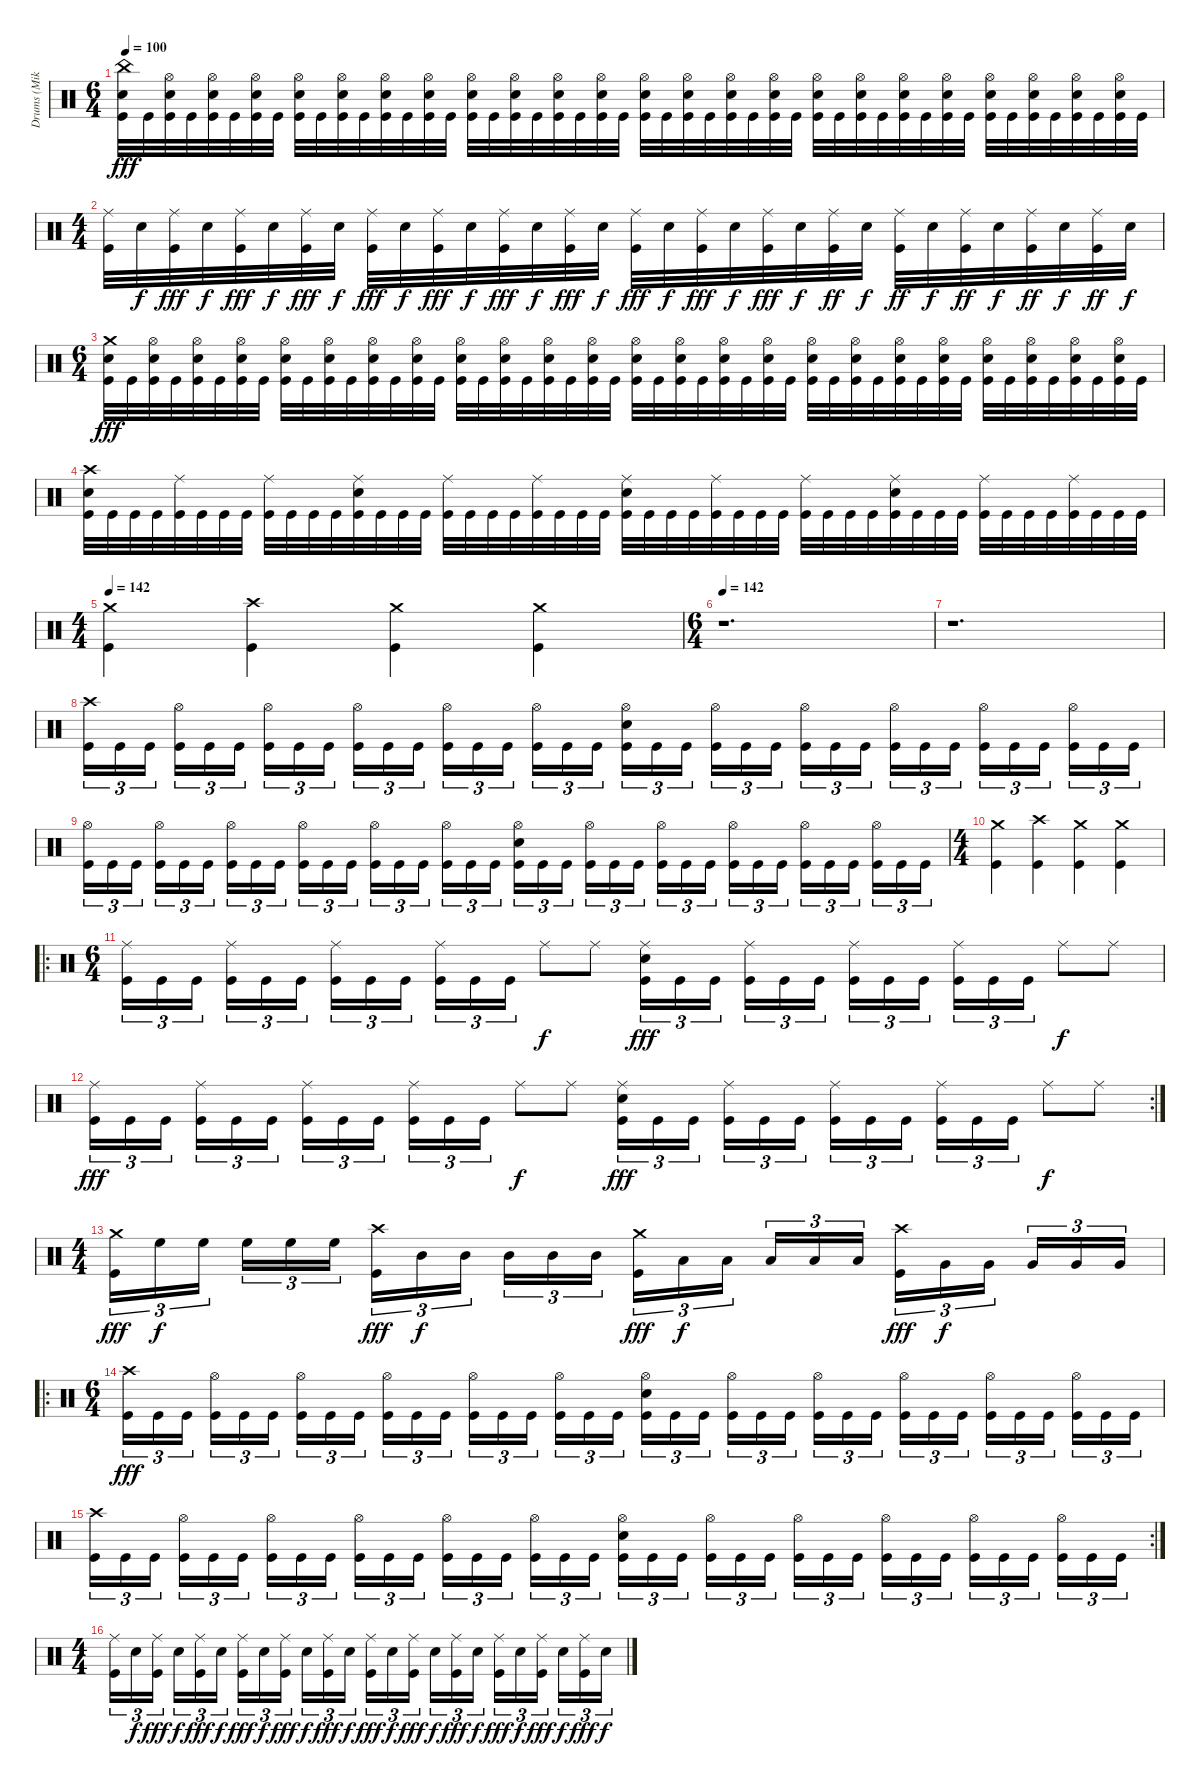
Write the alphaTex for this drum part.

\track ("Drums (Mike)" "Drums (Mik") {instrument percussion}
\staff {score}
\articulation defaults
\ts (6 4)
\tempo 100
\clef neutral
\ks c
("China (hit)" "Electric Snare (hit)" "Kick (hit)").32{dy fff} "Kick (hit)".32 ("Hi-Hat (open)" "Electric Snare (hit)" "Kick (hit)").32 "Kick (hit)".32 ("Hi-Hat (open)" "Electric Snare (hit)" "Kick (hit)").32 "Kick (hit)".32 ("Hi-Hat (open)" "Electric Snare (hit)" "Kick (hit)").32 "Kick (hit)".32 ("Hi-Hat (open)" "Electric Snare (hit)" "Kick (hit)").32 "Kick (hit)".32 ("Hi-Hat (open)" "Electric Snare (hit)" "Kick (hit)").32 "Kick (hit)".32 ("Hi-Hat (open)" "Electric Snare (hit)" "Kick (hit)").32 "Kick (hit)".32 ("Hi-Hat (open)" "Electric Snare (hit)" "Kick (hit)").32 "Kick (hit)".32 ("Hi-Hat (open)" "Electric Snare (hit)" "Kick (hit)").32 "Kick (hit)".32 ("Hi-Hat (open)" "Electric Snare (hit)" "Kick (hit)").32 "Kick (hit)".32 ("Hi-Hat (open)" "Electric Snare (hit)" "Kick (hit)").32 "Kick (hit)".32 ("Hi-Hat (open)" "Electric Snare (hit)" "Kick (hit)").32 "Kick (hit)".32 ("Hi-Hat (open)" "Electric Snare (hit)" "Kick (hit)").32 "Kick (hit)".32 ("Hi-Hat (open)" "Electric Snare (hit)" "Kick (hit)").32 "Kick (hit)".32 ("Hi-Hat (open)" "Electric Snare (hit)" "Kick (hit)").32 "Kick (hit)".32 ("Hi-Hat (open)" "Electric Snare (hit)" "Kick (hit)").32 "Kick (hit)".32 ("Hi-Hat (open)" "Electric Snare (hit)" "Kick (hit)").32 "Kick (hit)".32 ("Hi-Hat (open)" "Electric Snare (hit)" "Kick (hit)").32 "Kick (hit)".32 ("Hi-Hat (open)" "Electric Snare (hit)" "Kick (hit)").32 "Kick (hit)".32 ("Hi-Hat (open)" "Electric Snare (hit)" "Kick (hit)").32 "Kick (hit)".32 ("Hi-Hat (open)" "Electric Snare (hit)" "Kick (hit)").32 "Kick (hit)".32 ("Hi-Hat (open)" "Electric Snare (hit)" "Kick (hit)").32 "Kick (hit)".32 ("Hi-Hat (open)" "Electric Snare (hit)" "Kick (hit)").32 "Kick (hit)".32 ("Hi-Hat (open)" "Electric Snare (hit)" "Kick (hit)").32 "Kick (hit)".32 |
\ts (4 4)
("Ride (middle)" "Kick (hit)").32 "Electric Snare (hit)".32{dy f} ("Ride (middle)" "Kick (hit)").32{dy fff} "Electric Snare (hit)".32{dy f} ("Ride (middle)" "Kick (hit)").32{dy fff} "Electric Snare (hit)".32{dy f} ("Ride (middle)" "Kick (hit)").32{dy fff} "Electric Snare (hit)".32{dy f} ("Ride (middle)" "Kick (hit)").32{dy fff} "Electric Snare (hit)".32{dy f} ("Ride (middle)" "Kick (hit)").32{dy fff} "Electric Snare (hit)".32{dy f} ("Ride (middle)" "Kick (hit)").32{dy fff} "Electric Snare (hit)".32{dy f} ("Ride (middle)" "Kick (hit)").32{dy fff} "Electric Snare (hit)".32{dy f} ("Ride (middle)" "Kick (hit)").32{dy fff} "Electric Snare (hit)".32{dy f} ("Ride (middle)" "Kick (hit)").32{dy fff} "Electric Snare (hit)".32{dy f} ("Ride (middle)" "Kick (hit)").32{dy fff} "Electric Snare (hit)".32{dy f} ("Ride (middle)" "Kick (hit)").32{dy ff} "Electric Snare (hit)".32{dy f} ("Ride (middle)" "Kick (hit)").32{dy ff} "Electric Snare (hit)".32{dy f} ("Ride (middle)" "Kick (hit)").32{dy ff} "Electric Snare (hit)".32{dy f} ("Ride (middle)" "Kick (hit)").32{dy ff} "Electric Snare (hit)".32{dy f} ("Ride (middle)" "Kick (hit)").32{dy ff} "Electric Snare (hit)".32{dy f} |
\ts (6 4)
("Crash medium (hit)" "Electric Snare (hit)" "Kick (hit)").32{dy fff} "Kick (hit)".32 ("Hi-Hat (open)" "Electric Snare (hit)" "Kick (hit)").32 "Kick (hit)".32 ("Hi-Hat (open)" "Electric Snare (hit)" "Kick (hit)").32 "Kick (hit)".32 ("Hi-Hat (open)" "Electric Snare (hit)" "Kick (hit)").32 "Kick (hit)".32 ("Hi-Hat (open)" "Electric Snare (hit)" "Kick (hit)").32 "Kick (hit)".32 ("Hi-Hat (open)" "Electric Snare (hit)" "Kick (hit)").32 "Kick (hit)".32 ("Hi-Hat (open)" "Electric Snare (hit)" "Kick (hit)").32 "Kick (hit)".32 ("Hi-Hat (open)" "Electric Snare (hit)" "Kick (hit)").32 "Kick (hit)".32 ("Hi-Hat (open)" "Electric Snare (hit)" "Kick (hit)").32 "Kick (hit)".32 ("Hi-Hat (open)" "Electric Snare (hit)" "Kick (hit)").32 "Kick (hit)".32 ("Hi-Hat (open)" "Electric Snare (hit)" "Kick (hit)").32 "Kick (hit)".32 ("Hi-Hat (open)" "Electric Snare (hit)" "Kick (hit)").32 "Kick (hit)".32 ("Hi-Hat (open)" "Electric Snare (hit)" "Kick (hit)").32 "Kick (hit)".32 ("Hi-Hat (open)" "Electric Snare (hit)" "Kick (hit)").32 "Kick (hit)".32 ("Hi-Hat (open)" "Electric Snare (hit)" "Kick (hit)").32 "Kick (hit)".32 ("Hi-Hat (open)" "Electric Snare (hit)" "Kick (hit)").32 "Kick (hit)".32 ("Hi-Hat (open)" "Electric Snare (hit)" "Kick (hit)").32 "Kick (hit)".32 ("Hi-Hat (open)" "Electric Snare (hit)" "Kick (hit)").32 "Kick (hit)".32 ("Hi-Hat (open)" "Electric Snare (hit)" "Kick (hit)").32 "Kick (hit)".32 ("Hi-Hat (open)" "Electric Snare (hit)" "Kick (hit)").32 "Kick (hit)".32 ("Hi-Hat (open)" "Electric Snare (hit)" "Kick (hit)").32 "Kick (hit)".32 ("Hi-Hat (open)" "Electric Snare (hit)" "Kick (hit)").32 "Kick (hit)".32 ("Hi-Hat (open)" "Electric Snare (hit)" "Kick (hit)").32 "Kick (hit)".32 ("Hi-Hat (open)" "Electric Snare (hit)" "Kick (hit)").32 "Kick (hit)".32 |
("Crash high (hit)" "Electric Snare (hit)" "Kick (hit)").32 "Kick (hit)".32 "Kick (hit)".32 "Kick (hit)".32 ("Ride (middle)" "Kick (hit)").32 "Kick (hit)".32 "Kick (hit)".32 "Kick (hit)".32 ("Ride (middle)" "Kick (hit)").32 "Kick (hit)".32 "Kick (hit)".32 "Kick (hit)".32 ("Ride (middle)" "Electric Snare (hit)" "Kick (hit)").32 "Kick (hit)".32 "Kick (hit)".32 "Kick (hit)".32 ("Ride (middle)" "Kick (hit)").32 "Kick (hit)".32 "Kick (hit)".32 "Kick (hit)".32 ("Ride (middle)" "Kick (hit)").32 "Kick (hit)".32 "Kick (hit)".32 "Kick (hit)".32 ("Ride (middle)" "Electric Snare (hit)" "Kick (hit)").32 "Kick (hit)".32 "Kick (hit)".32 "Kick (hit)".32 ("Ride (middle)" "Kick (hit)").32 "Kick (hit)".32 "Kick (hit)".32 "Kick (hit)".32 ("Ride (middle)" "Kick (hit)").32 "Kick (hit)".32 "Kick (hit)".32 "Kick (hit)".32 ("Ride (middle)" "Electric Snare (hit)" "Kick (hit)").32 "Kick (hit)".32 "Kick (hit)".32 "Kick (hit)".32 ("Ride (middle)" "Kick (hit)").32 "Kick (hit)".32 "Kick (hit)".32 "Kick (hit)".32 ("Ride (middle)" "Kick (hit)").32 "Kick (hit)".32 "Kick (hit)".32 "Kick (hit)".32 |
\ts (4 4)
\tempo 142
("Crash medium (hit)" "Kick (hit)").4 ("Crash high (hit)" "Kick (hit)").4 ("Crash medium (hit)" "Kick (hit)").4 ("Crash medium (hit)" "Kick (hit)").4 |
\ts (6 4)
\tempo 142
r.1{d} |
r.1{d} |
("Crash high (hit)" "Kick (hit)").16{tu (3 2)} "Kick (hit)".16{tu (3 2)} "Kick (hit)".16{tu (3 2)} ("Hi-Hat (open)" "Kick (hit)").16{tu (3 2)} "Kick (hit)".16{tu (3 2)} "Kick (hit)".16{tu (3 2)} ("Hi-Hat (open)" "Kick (hit)").16{tu (3 2)} "Kick (hit)".16{tu (3 2)} "Kick (hit)".16{tu (3 2)} ("Hi-Hat (open)" "Kick (hit)").16{tu (3 2)} "Kick (hit)".16{tu (3 2)} "Kick (hit)".16{tu (3 2)} ("Hi-Hat (open)" "Kick (hit)").16{tu (3 2)} "Kick (hit)".16{tu (3 2)} "Kick (hit)".16{tu (3 2)} ("Hi-Hat (open)" "Kick (hit)").16{tu (3 2)} "Kick (hit)".16{tu (3 2)} "Kick (hit)".16{tu (3 2)} ("Hi-Hat (open)" "Electric Snare (hit)" "Kick (hit)").16{tu (3 2)} "Kick (hit)".16{tu (3 2)} "Kick (hit)".16{tu (3 2)} ("Hi-Hat (open)" "Kick (hit)").16{tu (3 2)} "Kick (hit)".16{tu (3 2)} "Kick (hit)".16{tu (3 2)} ("Hi-Hat (open)" "Kick (hit)").16{tu (3 2)} "Kick (hit)".16{tu (3 2)} "Kick (hit)".16{tu (3 2)} ("Hi-Hat (open)" "Kick (hit)").16{tu (3 2)} "Kick (hit)".16{tu (3 2)} "Kick (hit)".16{tu (3 2)} ("Hi-Hat (open)" "Kick (hit)").16{tu (3 2)} "Kick (hit)".16{tu (3 2)} "Kick (hit)".16{tu (3 2)} ("Hi-Hat (open)" "Kick (hit)").16{tu (3 2)} "Kick (hit)".16{tu (3 2)} "Kick (hit)".16{tu (3 2)} |
("Hi-Hat (open)" "Kick (hit)").16{tu (3 2)} "Kick (hit)".16{tu (3 2)} "Kick (hit)".16{tu (3 2)} ("Hi-Hat (open)" "Kick (hit)").16{tu (3 2)} "Kick (hit)".16{tu (3 2)} "Kick (hit)".16{tu (3 2)} ("Hi-Hat (open)" "Kick (hit)").16{tu (3 2)} "Kick (hit)".16{tu (3 2)} "Kick (hit)".16{tu (3 2)} ("Hi-Hat (open)" "Kick (hit)").16{tu (3 2)} "Kick (hit)".16{tu (3 2)} "Kick (hit)".16{tu (3 2)} ("Hi-Hat (open)" "Kick (hit)").16{tu (3 2)} "Kick (hit)".16{tu (3 2)} "Kick (hit)".16{tu (3 2)} ("Hi-Hat (open)" "Kick (hit)").16{tu (3 2)} "Kick (hit)".16{tu (3 2)} "Kick (hit)".16{tu (3 2)} ("Hi-Hat (open)" "Electric Snare (hit)" "Kick (hit)").16{tu (3 2)} "Kick (hit)".16{tu (3 2)} "Kick (hit)".16{tu (3 2)} ("Hi-Hat (open)" "Kick (hit)").16{tu (3 2)} "Kick (hit)".16{tu (3 2)} "Kick (hit)".16{tu (3 2)} ("Hi-Hat (open)" "Kick (hit)").16{tu (3 2)} "Kick (hit)".16{tu (3 2)} "Kick (hit)".16{tu (3 2)} ("Hi-Hat (open)" "Kick (hit)").16{tu (3 2)} "Kick (hit)".16{tu (3 2)} "Kick (hit)".16{tu (3 2)} ("Hi-Hat (open)" "Kick (hit)").16{tu (3 2)} "Kick (hit)".16{tu (3 2)} "Kick (hit)".16{tu (3 2)} ("Hi-Hat (open)" "Kick (hit)").16{tu (3 2)} "Kick (hit)".16{tu (3 2)} "Kick (hit)".16{tu (3 2)} |
\ts (4 4)
("Crash medium (hit)" "Kick (hit)").4 ("Crash high (hit)" "Kick (hit)").4 ("Crash medium (hit)" "Kick (hit)").4 ("Crash medium (hit)" "Kick (hit)").4 |
\ro
\ts (6 4)
("Ride (middle)" "Kick (hit)").16{tu (3 2)} "Kick (hit)".16{tu (3 2)} "Kick (hit)".16{tu (3 2)} ("Ride (middle)" "Kick (hit)").16{tu (3 2)} "Kick (hit)".16{tu (3 2)} "Kick (hit)".16{tu (3 2)} ("Ride (middle)" "Kick (hit)").16{tu (3 2)} "Kick (hit)".16{tu (3 2)} "Kick (hit)".16{tu (3 2)} ("Ride (middle)" "Kick (hit)").16{tu (3 2)} "Kick (hit)".16{tu (3 2)} "Kick (hit)".16{tu (3 2)} "Ride (middle)".8{dy f} "Ride (middle)".8 ("Ride (middle)" "Electric Snare (hit)" "Kick (hit)").16{tu (3 2) dy fff} "Kick (hit)".16{tu (3 2)} "Kick (hit)".16{tu (3 2)} ("Ride (middle)" "Kick (hit)").16{tu (3 2)} "Kick (hit)".16{tu (3 2)} "Kick (hit)".16{tu (3 2)} ("Ride (middle)" "Kick (hit)").16{tu (3 2)} "Kick (hit)".16{tu (3 2)} "Kick (hit)".16{tu (3 2)} ("Ride (middle)" "Kick (hit)").16{tu (3 2)} "Kick (hit)".16{tu (3 2)} "Kick (hit)".16{tu (3 2)} "Ride (middle)".8{dy f} "Ride (middle)".8 |
\rc 2
("Ride (middle)" "Kick (hit)").16{tu (3 2) dy fff} "Kick (hit)".16{tu (3 2)} "Kick (hit)".16{tu (3 2)} ("Ride (middle)" "Kick (hit)").16{tu (3 2)} "Kick (hit)".16{tu (3 2)} "Kick (hit)".16{tu (3 2)} ("Ride (middle)" "Kick (hit)").16{tu (3 2)} "Kick (hit)".16{tu (3 2)} "Kick (hit)".16{tu (3 2)} ("Ride (middle)" "Kick (hit)").16{tu (3 2)} "Kick (hit)".16{tu (3 2)} "Kick (hit)".16{tu (3 2)} "Ride (middle)".8{dy f} "Ride (middle)".8 ("Ride (middle)" "Electric Snare (hit)" "Kick (hit)").16{tu (3 2) dy fff} "Kick (hit)".16{tu (3 2)} "Kick (hit)".16{tu (3 2)} ("Ride (middle)" "Kick (hit)").16{tu (3 2)} "Kick (hit)".16{tu (3 2)} "Kick (hit)".16{tu (3 2)} ("Ride (middle)" "Kick (hit)").16{tu (3 2)} "Kick (hit)".16{tu (3 2)} "Kick (hit)".16{tu (3 2)} ("Ride (middle)" "Kick (hit)").16{tu (3 2)} "Kick (hit)".16{tu (3 2)} "Kick (hit)".16{tu (3 2)} "Ride (middle)".8{dy f} "Ride (middle)".8 |
\ts (4 4)
("Crash medium (hit)" "Kick (hit)").16{tu (3 2) dy fff} "High Floor Tom (hit)".16{tu (3 2) dy f} "High Floor Tom (hit)".16{tu (3 2)} "High Floor Tom (hit)".16{tu (3 2)} "High Floor Tom (hit)".16{tu (3 2)} "High Floor Tom (hit)".16{tu (3 2)} ("Crash high (hit)" "Kick (hit)").16{tu (3 2) dy fff} "Mid Tom (hit)".16{tu (3 2) dy f} "Mid Tom (hit)".16{tu (3 2)} "Mid Tom (hit)".16{tu (3 2)} "Mid Tom (hit)".16{tu (3 2)} "Mid Tom (hit)".16{tu (3 2)} ("Crash medium (hit)" "Kick (hit)").16{tu (3 2) dy fff} "Low Tom (hit)".16{tu (3 2) dy f} "Low Tom (hit)".16{tu (3 2)} "Low Tom (hit)".16{tu (3 2)} "Low Tom (hit)".16{tu (3 2)} "Low Tom (hit)".16{tu (3 2)} ("Crash high (hit)" "Kick (hit)").16{tu (3 2) dy fff} "Very Low Tom (hit)".16{tu (3 2) dy f} "Very Low Tom (hit)".16{tu (3 2)} "Very Low Tom (hit)".16{tu (3 2)} "Very Low Tom (hit)".16{tu (3 2)} "Very Low Tom (hit)".16{tu (3 2)} |
\ro
\ts (6 4)
("Crash high (hit)" "Kick (hit)").16{tu (3 2) dy fff} "Kick (hit)".16{tu (3 2)} "Kick (hit)".16{tu (3 2)} ("Hi-Hat (open)" "Kick (hit)").16{tu (3 2)} "Kick (hit)".16{tu (3 2)} "Kick (hit)".16{tu (3 2)} ("Hi-Hat (open)" "Kick (hit)").16{tu (3 2)} "Kick (hit)".16{tu (3 2)} "Kick (hit)".16{tu (3 2)} ("Hi-Hat (open)" "Kick (hit)").16{tu (3 2)} "Kick (hit)".16{tu (3 2)} "Kick (hit)".16{tu (3 2)} ("Hi-Hat (open)" "Kick (hit)").16{tu (3 2)} "Kick (hit)".16{tu (3 2)} "Kick (hit)".16{tu (3 2)} ("Hi-Hat (open)" "Kick (hit)").16{tu (3 2)} "Kick (hit)".16{tu (3 2)} "Kick (hit)".16{tu (3 2)} ("Hi-Hat (open)" "Electric Snare (hit)" "Kick (hit)").16{tu (3 2)} "Kick (hit)".16{tu (3 2)} "Kick (hit)".16{tu (3 2)} ("Hi-Hat (open)" "Kick (hit)").16{tu (3 2)} "Kick (hit)".16{tu (3 2)} "Kick (hit)".16{tu (3 2)} ("Hi-Hat (open)" "Kick (hit)").16{tu (3 2)} "Kick (hit)".16{tu (3 2)} "Kick (hit)".16{tu (3 2)} ("Hi-Hat (open)" "Kick (hit)").16{tu (3 2)} "Kick (hit)".16{tu (3 2)} "Kick (hit)".16{tu (3 2)} ("Hi-Hat (open)" "Kick (hit)").16{tu (3 2)} "Kick (hit)".16{tu (3 2)} "Kick (hit)".16{tu (3 2)} ("Hi-Hat (open)" "Kick (hit)").16{tu (3 2)} "Kick (hit)".16{tu (3 2)} "Kick (hit)".16{tu (3 2)} |
\rc 2
("Crash high (hit)" "Kick (hit)").16{tu (3 2)} "Kick (hit)".16{tu (3 2)} "Kick (hit)".16{tu (3 2)} ("Hi-Hat (open)" "Kick (hit)").16{tu (3 2)} "Kick (hit)".16{tu (3 2)} "Kick (hit)".16{tu (3 2)} ("Hi-Hat (open)" "Kick (hit)").16{tu (3 2)} "Kick (hit)".16{tu (3 2)} "Kick (hit)".16{tu (3 2)} ("Hi-Hat (open)" "Kick (hit)").16{tu (3 2)} "Kick (hit)".16{tu (3 2)} "Kick (hit)".16{tu (3 2)} ("Hi-Hat (open)" "Kick (hit)").16{tu (3 2)} "Kick (hit)".16{tu (3 2)} "Kick (hit)".16{tu (3 2)} ("Hi-Hat (open)" "Kick (hit)").16{tu (3 2)} "Kick (hit)".16{tu (3 2)} "Kick (hit)".16{tu (3 2)} ("Hi-Hat (open)" "Electric Snare (hit)" "Kick (hit)").16{tu (3 2)} "Kick (hit)".16{tu (3 2)} "Kick (hit)".16{tu (3 2)} ("Hi-Hat (open)" "Kick (hit)").16{tu (3 2)} "Kick (hit)".16{tu (3 2)} "Kick (hit)".16{tu (3 2)} ("Hi-Hat (open)" "Kick (hit)").16{tu (3 2)} "Kick (hit)".16{tu (3 2)} "Kick (hit)".16{tu (3 2)} ("Hi-Hat (open)" "Kick (hit)").16{tu (3 2)} "Kick (hit)".16{tu (3 2)} "Kick (hit)".16{tu (3 2)} ("Hi-Hat (open)" "Kick (hit)").16{tu (3 2)} "Kick (hit)".16{tu (3 2)} "Kick (hit)".16{tu (3 2)} ("Hi-Hat (open)" "Kick (hit)").16{tu (3 2)} "Kick (hit)".16{tu (3 2)} "Kick (hit)".16{tu (3 2)} |
\ts (4 4)
("Ride (middle)" "Kick (hit)").16{tu (3 2)} "Electric Snare (hit)".16{tu (3 2) dy f} ("Ride (middle)" "Kick (hit)").16{tu (3 2) dy fff} "Electric Snare (hit)".16{tu (3 2) dy f} ("Ride (middle)" "Kick (hit)").16{tu (3 2) dy fff} "Electric Snare (hit)".16{tu (3 2) dy f} ("Ride (middle)" "Kick (hit)").16{tu (3 2) dy fff} "Electric Snare (hit)".16{tu (3 2) dy f} ("Ride (middle)" "Kick (hit)").16{tu (3 2) dy fff} "Electric Snare (hit)".16{tu (3 2) dy f} ("Ride (middle)" "Kick (hit)").16{tu (3 2) dy fff} "Electric Snare (hit)".16{tu (3 2) dy f} ("Ride (middle)" "Kick (hit)").16{tu (3 2) dy fff} "Electric Snare (hit)".16{tu (3 2) dy f} ("Ride (middle)" "Kick (hit)").16{tu (3 2) dy fff} "Electric Snare (hit)".16{tu (3 2) dy f} ("Ride (middle)" "Kick (hit)").16{tu (3 2) dy fff} "Electric Snare (hit)".16{tu (3 2) dy f} ("Ride (middle)" "Kick (hit)").16{tu (3 2) dy fff} "Electric Snare (hit)".16{tu (3 2) dy f} ("Ride (middle)" "Kick (hit)").16{tu (3 2) dy fff} "Electric Snare (hit)".16{tu (3 2) dy f} ("Ride (middle)" "Kick (hit)").16{tu (3 2) dy fff} "Electric Snare (hit)".16{tu (3 2) dy f}
